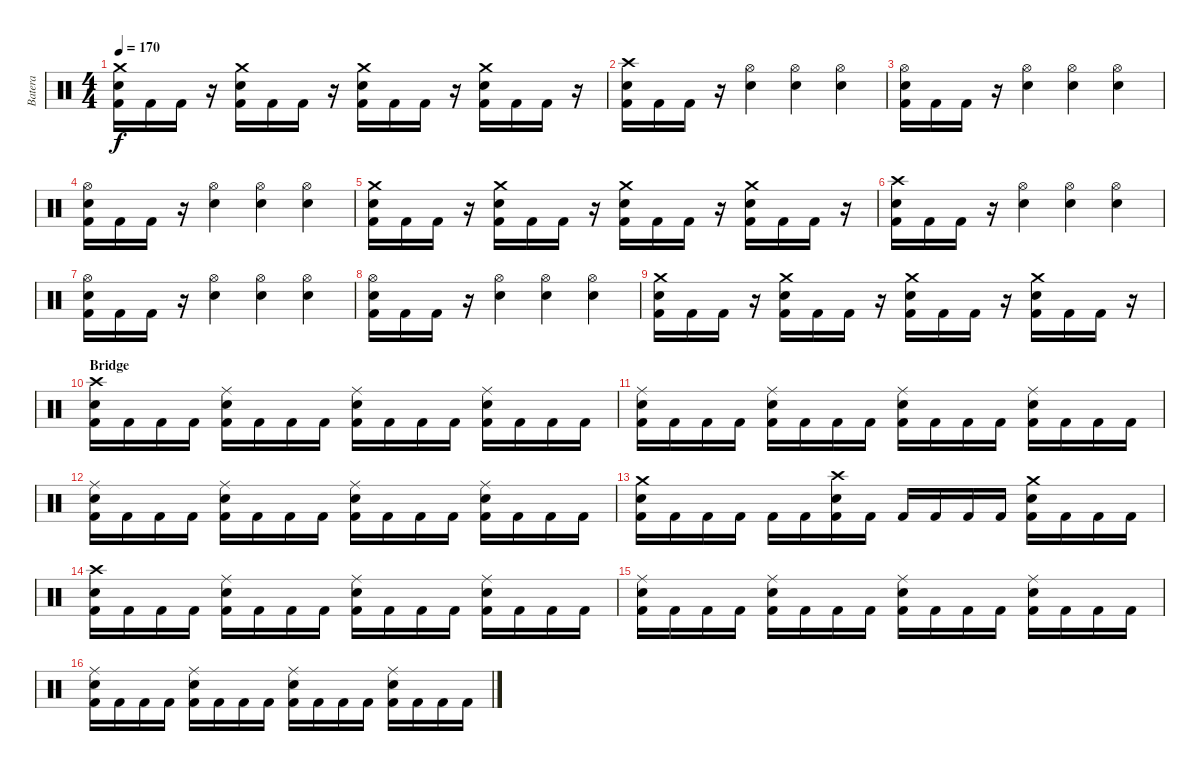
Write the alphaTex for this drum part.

\track ("Batera" "Batera") {instrument percussion}
\staff {score}
\articulation defaults
\ts (4 4)
\tempo 170
\clef neutral
\ks c
("Crash medium (hit)" "Electric Snare (hit)" "Kick (hit) 2").16{dy f} "Kick (hit) 2".16 "Kick (hit) 2".16 r.16 ("Crash medium (hit)" "Electric Snare (hit)" "Kick (hit) 2").16 "Kick (hit) 2".16 "Kick (hit) 2".16 r.16 ("Crash medium (hit)" "Electric Snare (hit)" "Kick (hit) 2").16 "Kick (hit) 2".16 "Kick (hit) 2".16 r.16 ("Crash medium (hit)" "Electric Snare (hit)" "Kick (hit) 2").16 "Kick (hit) 2".16 "Kick (hit) 2".16 r.16 |
("Crash high (hit)" "Electric Snare (hit)" "Kick (hit) 2").16 "Kick (hit) 2".16 "Kick (hit) 2".16 r.16 ("Hi-Hat (open)" "Electric Snare (hit)").4 ("Hi-Hat (open)" "Electric Snare (hit)").4 ("Hi-Hat (open)" "Electric Snare (hit)").4 |
("Hi-Hat (open)" "Electric Snare (hit)" "Kick (hit) 2").16 "Kick (hit) 2".16 "Kick (hit) 2".16 r.16 ("Hi-Hat (open)" "Electric Snare (hit)").4 ("Hi-Hat (open)" "Electric Snare (hit)").4 ("Hi-Hat (open)" "Electric Snare (hit)").4 |
("Hi-Hat (open)" "Electric Snare (hit)" "Kick (hit) 2").16 "Kick (hit) 2".16 "Kick (hit) 2".16 r.16 ("Hi-Hat (open)" "Electric Snare (hit)").4 ("Hi-Hat (open)" "Electric Snare (hit)").4 ("Hi-Hat (open)" "Electric Snare (hit)").4 |
("Crash medium (hit)" "Electric Snare (hit)" "Kick (hit) 2").16 "Kick (hit) 2".16 "Kick (hit) 2".16 r.16 ("Crash medium (hit)" "Electric Snare (hit)" "Kick (hit) 2").16 "Kick (hit) 2".16 "Kick (hit) 2".16 r.16 ("Crash medium (hit)" "Electric Snare (hit)" "Kick (hit) 2").16 "Kick (hit) 2".16 "Kick (hit) 2".16 r.16 ("Crash medium (hit)" "Electric Snare (hit)" "Kick (hit) 2").16 "Kick (hit) 2".16 "Kick (hit) 2".16 r.16 |
("Crash high (hit)" "Electric Snare (hit)" "Kick (hit) 2").16 "Kick (hit) 2".16 "Kick (hit) 2".16 r.16 ("Hi-Hat (open)" "Electric Snare (hit)").4 ("Hi-Hat (open)" "Electric Snare (hit)").4 ("Hi-Hat (open)" "Electric Snare (hit)").4 |
("Hi-Hat (open)" "Electric Snare (hit)" "Kick (hit) 2").16 "Kick (hit) 2".16 "Kick (hit) 2".16 r.16 ("Hi-Hat (open)" "Electric Snare (hit)").4 ("Hi-Hat (open)" "Electric Snare (hit)").4 ("Hi-Hat (open)" "Electric Snare (hit)").4 |
("Hi-Hat (open)" "Electric Snare (hit)" "Kick (hit) 2").16 "Kick (hit) 2".16 "Kick (hit) 2".16 r.16 ("Hi-Hat (open)" "Electric Snare (hit)").4 ("Hi-Hat (open)" "Electric Snare (hit)").4 ("Hi-Hat (open)" "Electric Snare (hit)").4 |
("Crash medium (hit)" "Electric Snare (hit)" "Kick (hit) 2").16 "Kick (hit) 2".16 "Kick (hit) 2".16 r.16 ("Crash medium (hit)" "Electric Snare (hit)" "Kick (hit) 2").16 "Kick (hit) 2".16 "Kick (hit) 2".16 r.16 ("Crash medium (hit)" "Electric Snare (hit)" "Kick (hit) 2").16 "Kick (hit) 2".16 "Kick (hit) 2".16 r.16 ("Crash medium (hit)" "Electric Snare (hit)" "Kick (hit) 2").16 "Kick (hit) 2".16 "Kick (hit) 2".16 r.16 |
\section ("" "Bridge")
("Crash high (hit)" "Electric Snare (hit)" "Kick (hit) 2").16 "Kick (hit) 2".16 "Kick (hit) 2".16 "Kick (hit) 2".16 ("Ride (middle)" "Electric Snare (hit)" "Kick (hit) 2").16 "Kick (hit) 2".16 "Kick (hit) 2".16 "Kick (hit) 2".16 ("Ride (middle)" "Electric Snare (hit)" "Kick (hit) 2").16 "Kick (hit) 2".16 "Kick (hit) 2".16 "Kick (hit) 2".16 ("Ride (middle)" "Electric Snare (hit)" "Kick (hit) 2").16 "Kick (hit) 2".16 "Kick (hit) 2".16 "Kick (hit) 2".16 |
("Ride (middle)" "Electric Snare (hit)" "Kick (hit) 2").16 "Kick (hit) 2".16 "Kick (hit) 2".16 "Kick (hit) 2".16 ("Ride (middle)" "Electric Snare (hit)" "Kick (hit) 2").16 "Kick (hit) 2".16 "Kick (hit) 2".16 "Kick (hit) 2".16 ("Ride (middle)" "Electric Snare (hit)" "Kick (hit) 2").16 "Kick (hit) 2".16 "Kick (hit) 2".16 "Kick (hit) 2".16 ("Ride (middle)" "Electric Snare (hit)" "Kick (hit) 2").16 "Kick (hit) 2".16 "Kick (hit) 2".16 "Kick (hit) 2".16 |
("Ride (middle)" "Electric Snare (hit)" "Kick (hit) 2").16 "Kick (hit) 2".16 "Kick (hit) 2".16 "Kick (hit) 2".16 ("Ride (middle)" "Electric Snare (hit)" "Kick (hit) 2").16 "Kick (hit) 2".16 "Kick (hit) 2".16 "Kick (hit) 2".16 ("Ride (middle)" "Electric Snare (hit)" "Kick (hit) 2").16 "Kick (hit) 2".16 "Kick (hit) 2".16 "Kick (hit) 2".16 ("Ride (middle)" "Electric Snare (hit)" "Kick (hit) 2").16 "Kick (hit) 2".16 "Kick (hit) 2".16 "Kick (hit) 2".16 |
("Crash medium (hit)" "Electric Snare (hit)" "Kick (hit) 2").16 "Kick (hit) 2".16 "Kick (hit) 2".16 "Kick (hit) 2".16 "Kick (hit) 2".16 "Kick (hit) 2".16 ("Crash high (hit)" "Electric Snare (hit)" "Kick (hit) 2").16 "Kick (hit) 2".16 "Kick (hit) 2".16 "Kick (hit) 2".16 "Kick (hit) 2".16 "Kick (hit) 2".16 ("Crash medium (hit)" "Electric Snare (hit)" "Kick (hit) 2").16 "Kick (hit) 2".16 "Kick (hit) 2".16 "Kick (hit) 2".16 |
("Crash high (hit)" "Electric Snare (hit)" "Kick (hit) 2").16 "Kick (hit) 2".16 "Kick (hit) 2".16 "Kick (hit) 2".16 ("Ride (middle)" "Electric Snare (hit)" "Kick (hit) 2").16 "Kick (hit) 2".16 "Kick (hit) 2".16 "Kick (hit) 2".16 ("Ride (middle)" "Electric Snare (hit)" "Kick (hit) 2").16 "Kick (hit) 2".16 "Kick (hit) 2".16 "Kick (hit) 2".16 ("Ride (middle)" "Electric Snare (hit)" "Kick (hit) 2").16 "Kick (hit) 2".16 "Kick (hit) 2".16 "Kick (hit) 2".16 |
("Ride (middle)" "Electric Snare (hit)" "Kick (hit) 2").16 "Kick (hit) 2".16 "Kick (hit) 2".16 "Kick (hit) 2".16 ("Ride (middle)" "Electric Snare (hit)" "Kick (hit) 2").16 "Kick (hit) 2".16 "Kick (hit) 2".16 "Kick (hit) 2".16 ("Ride (middle)" "Electric Snare (hit)" "Kick (hit) 2").16 "Kick (hit) 2".16 "Kick (hit) 2".16 "Kick (hit) 2".16 ("Ride (middle)" "Electric Snare (hit)" "Kick (hit) 2").16 "Kick (hit) 2".16 "Kick (hit) 2".16 "Kick (hit) 2".16 |
("Ride (middle)" "Electric Snare (hit)" "Kick (hit) 2").16 "Kick (hit) 2".16 "Kick (hit) 2".16 "Kick (hit) 2".16 ("Ride (middle)" "Electric Snare (hit)" "Kick (hit) 2").16 "Kick (hit) 2".16 "Kick (hit) 2".16 "Kick (hit) 2".16 ("Ride (middle)" "Electric Snare (hit)" "Kick (hit) 2").16 "Kick (hit) 2".16 "Kick (hit) 2".16 "Kick (hit) 2".16 ("Ride (middle)" "Electric Snare (hit)" "Kick (hit) 2").16 "Kick (hit) 2".16 "Kick (hit) 2".16 "Kick (hit) 2".16
